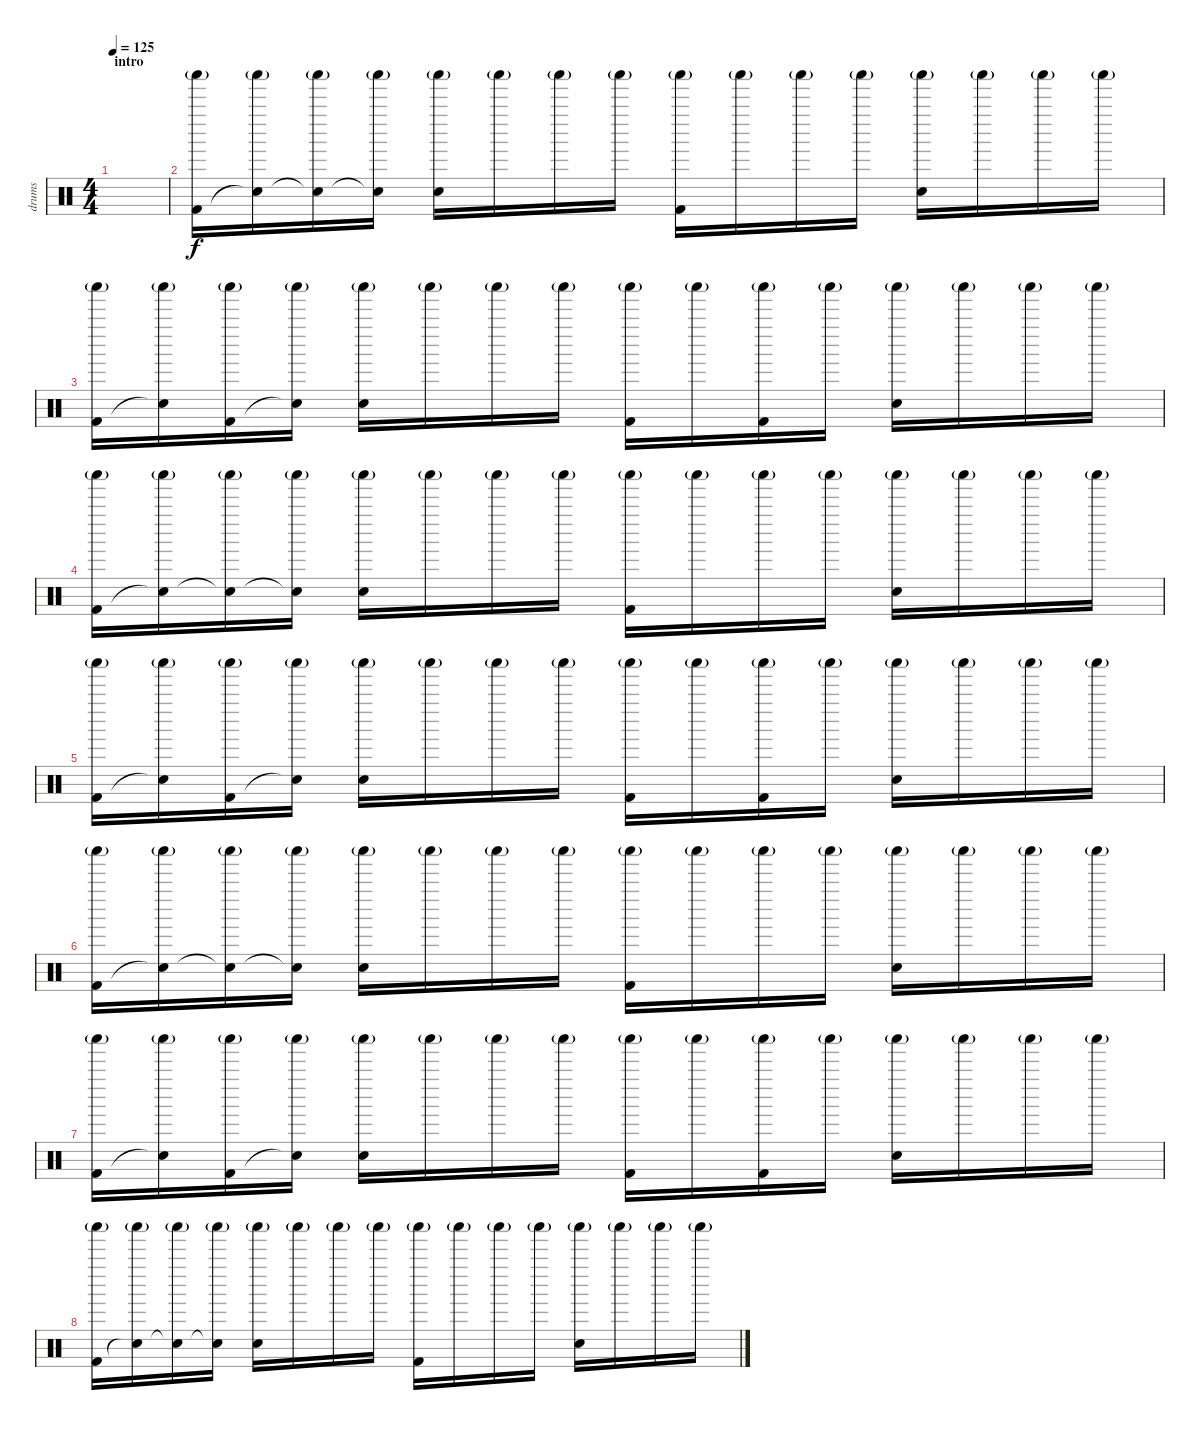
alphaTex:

\track ("drums" "drums") {instrument percussion}
\staff {score}
\articulation defaults
\ts (4 4)
\section ("" "intro")
\tempo 125
\clef neutral
\ks c
|
("Shaker (hit)"{g} "Kick (hit) 2").16 ("Shaker (hit)"{g} "Snare (hit)"{t}).16 ("Shaker (hit)"{g} "Snare (hit)"{t}).16 ("Shaker (hit)"{g} "Snare (hit)"{t}).16 ("Shaker (hit)"{g} "Snare (hit) 2").16 "Shaker (hit)"{g}.16 "Shaker (hit)"{g}.16 "Shaker (hit)"{g}.16 ("Shaker (hit)"{g} "Kick (hit) 2").16 "Shaker (hit)"{g}.16 "Shaker (hit)"{g}.16 "Shaker (hit)"{g}.16 ("Shaker (hit)"{g} "Snare (hit) 2").16 "Shaker (hit)"{g}.16 "Shaker (hit)"{g}.16 "Shaker (hit)"{g}.16 |
("Shaker (hit)"{g} "Kick (hit) 2").16 ("Shaker (hit)"{g} "Snare (hit)"{t}).16 ("Shaker (hit)"{g} "Kick (hit) 2").16 ("Shaker (hit)"{g} "Snare (hit)"{t}).16 ("Shaker (hit)"{g} "Snare (hit) 2").16 "Shaker (hit)"{g}.16 "Shaker (hit)"{g}.16 "Shaker (hit)"{g}.16 ("Shaker (hit)"{g} "Kick (hit) 2").16 "Shaker (hit)"{g}.16 ("Shaker (hit)"{g} "Kick (hit) 2").16 "Shaker (hit)"{g}.16 ("Shaker (hit)"{g} "Snare (hit) 2").16 "Shaker (hit)"{g}.16 "Shaker (hit)"{g}.16 "Shaker (hit)"{g}.16 |
("Shaker (hit)"{g} "Kick (hit) 2").16 ("Shaker (hit)"{g} "Snare (hit)"{t}).16 ("Shaker (hit)"{g} "Snare (hit)"{t}).16 ("Shaker (hit)"{g} "Snare (hit)"{t}).16 ("Shaker (hit)"{g} "Snare (hit) 2").16 "Shaker (hit)"{g}.16 "Shaker (hit)"{g}.16 "Shaker (hit)"{g}.16 ("Shaker (hit)"{g} "Kick (hit) 2").16 "Shaker (hit)"{g}.16 "Shaker (hit)"{g}.16 "Shaker (hit)"{g}.16 ("Shaker (hit)"{g} "Snare (hit) 2").16 "Shaker (hit)"{g}.16 "Shaker (hit)"{g}.16 "Shaker (hit)"{g}.16 |
("Shaker (hit)"{g} "Kick (hit) 2").16 ("Shaker (hit)"{g} "Snare (hit)"{t}).16 ("Shaker (hit)"{g} "Kick (hit) 2").16 ("Shaker (hit)"{g} "Snare (hit)"{t}).16 ("Shaker (hit)"{g} "Snare (hit) 2").16 "Shaker (hit)"{g}.16 "Shaker (hit)"{g}.16 "Shaker (hit)"{g}.16 ("Shaker (hit)"{g} "Kick (hit) 2").16 "Shaker (hit)"{g}.16 ("Shaker (hit)"{g} "Kick (hit) 2").16 "Shaker (hit)"{g}.16 ("Shaker (hit)"{g} "Snare (hit) 2").16 "Shaker (hit)"{g}.16 "Shaker (hit)"{g}.16 "Shaker (hit)"{g}.16 |
("Shaker (hit)"{g} "Kick (hit) 2").16 ("Shaker (hit)"{g} "Snare (hit)"{t}).16 ("Shaker (hit)"{g} "Snare (hit)"{t}).16 ("Shaker (hit)"{g} "Snare (hit)"{t}).16 ("Shaker (hit)"{g} "Snare (hit) 2").16 "Shaker (hit)"{g}.16 "Shaker (hit)"{g}.16 "Shaker (hit)"{g}.16 ("Shaker (hit)"{g} "Kick (hit) 2").16 "Shaker (hit)"{g}.16 "Shaker (hit)"{g}.16 "Shaker (hit)"{g}.16 ("Shaker (hit)"{g} "Snare (hit) 2").16 "Shaker (hit)"{g}.16 "Shaker (hit)"{g}.16 "Shaker (hit)"{g}.16 |
("Shaker (hit)"{g} "Kick (hit) 2").16 ("Shaker (hit)"{g} "Snare (hit)"{t}).16 ("Shaker (hit)"{g} "Kick (hit) 2").16 ("Shaker (hit)"{g} "Snare (hit)"{t}).16 ("Shaker (hit)"{g} "Snare (hit) 2").16 "Shaker (hit)"{g}.16 "Shaker (hit)"{g}.16 "Shaker (hit)"{g}.16 ("Shaker (hit)"{g} "Kick (hit) 2").16 "Shaker (hit)"{g}.16 ("Shaker (hit)"{g} "Kick (hit) 2").16 "Shaker (hit)"{g}.16 ("Shaker (hit)"{g} "Snare (hit) 2").16 "Shaker (hit)"{g}.16 "Shaker (hit)"{g}.16 "Shaker (hit)"{g}.16 |
("Shaker (hit)"{g} "Kick (hit) 2").16 ("Shaker (hit)"{g} "Snare (hit)"{t}).16 ("Shaker (hit)"{g} "Snare (hit)"{t}).16 ("Shaker (hit)"{g} "Snare (hit)"{t}).16 ("Shaker (hit)"{g} "Snare (hit) 2").16 "Shaker (hit)"{g}.16 "Shaker (hit)"{g}.16 "Shaker (hit)"{g}.16 ("Shaker (hit)"{g} "Kick (hit) 2").16 "Shaker (hit)"{g}.16 "Shaker (hit)"{g}.16 "Shaker (hit)"{g}.16 ("Shaker (hit)"{g} "Snare (hit) 2").16 "Shaker (hit)"{g}.16 "Shaker (hit)"{g}.16 "Shaker (hit)"{g}.16
